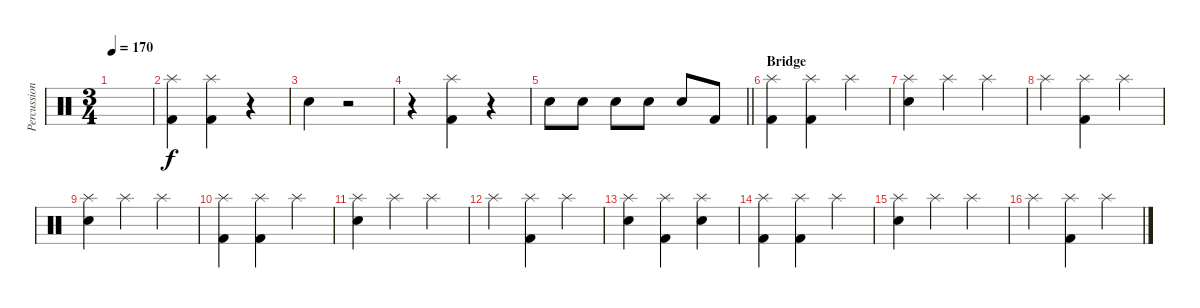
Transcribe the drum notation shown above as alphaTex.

\track ("Percussion" "Percussion") {instrument percussion}
\staff {score}
\articulation defaults
\ts (3 4)
\tempo 170
\clef neutral
\ks c
|
("Splash (hit)" "Kick (hit) 2").4 ("Splash (hit)" "Kick (hit) 2").4 r.4 |
"Electric Snare (hit)".4 r.2 |
r.4 ("Splash (hit)" "Kick (hit) 2").4 r.4 |
\barLineRight lightlight "Electric Snare (hit)".8 "Electric Snare (hit)".8 "Electric Snare (hit)".8 "Electric Snare (hit)".8 "Electric Snare (hit)".8 "Kick (hit) 2".8
|
\section ("" "Bridge")
("Splash (hit)" "Kick (hit) 2").4 ("Splash (hit)" "Kick (hit) 2").4 "Splash (hit)".4 |
("Splash (hit)" "Electric Snare (hit)").4 "Splash (hit)".4 "Splash (hit)".4 |
"Splash (hit)".4 ("Splash (hit)" "Kick (hit) 2").4 "Splash (hit)".4 |
("Splash (hit)" "Electric Snare (hit)").4 "Splash (hit)".4 "Splash (hit)".4 |
("Splash (hit)" "Kick (hit) 2").4 ("Splash (hit)" "Kick (hit) 2").4 "Splash (hit)".4 |
("Splash (hit)" "Electric Snare (hit)").4 "Splash (hit)".4 "Splash (hit)".4 |
"Splash (hit)".4 ("Splash (hit)" "Kick (hit) 2").4 "Splash (hit)".4 |
("Splash (hit)" "Electric Snare (hit)").4 ("Splash (hit)" "Kick (hit) 2").4 ("Splash (hit)" "Electric Snare (hit)").4 |
("Splash (hit)" "Kick (hit) 2").4 ("Splash (hit)" "Kick (hit) 2").4 "Splash (hit)".4 |
("Splash (hit)" "Electric Snare (hit)").4 "Splash (hit)".4 "Splash (hit)".4 |
"Splash (hit)".4 ("Splash (hit)" "Kick (hit) 2").4 "Splash (hit)".4
